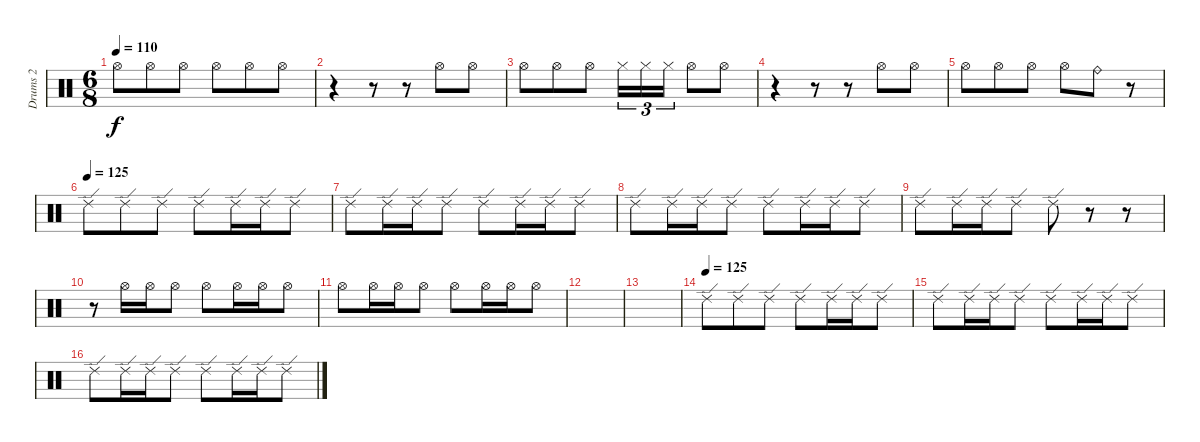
\track ("Drums 2" "Drums 2") {instrument percussion}
\staff {score}
\articulation defaults
\ts (6 8)
\tempo 110
\clef neutral
\ks c "Hi-Hat (open)".8{dy f} "Hi-Hat (open)".8 "Hi-Hat (open)".8 "Hi-Hat (open)".8 "Hi-Hat (open)".8 "Hi-Hat (open)".8
|
r.4 r.8 r.8 "Hi-Hat (open)".8 "Hi-Hat (open)".8 |
"Hi-Hat (open)".8 "Hi-Hat (open)".8 "Hi-Hat (open)".8 "Hi-Hat (closed)".16{tu (3 2)} "Hi-Hat (closed)".16{tu (3 2)} "Hi-Hat (closed)".16{tu (3 2)} "Hi-Hat (open)".8 "Hi-Hat (open)".8 |
r.4 r.8 r.8 "Hi-Hat (open)".8 "Hi-Hat (open)".8 |
"Hi-Hat (open)".8 "Hi-Hat (open)".8 "Hi-Hat (open)".8 "Hi-Hat (open)".8 "Ride (bell)".8 r.8 |
\tempo (125)
"Ride (edge) 2".8 "Ride (edge) 2".8 "Ride (edge) 2".8 "Ride (edge) 2".8 "Ride (edge) 2".16 "Ride (edge) 2".16 "Ride (edge) 2".8 |
"Ride (edge) 2".8 "Ride (edge) 2".16 "Ride (edge) 2".16 "Ride (edge) 2".8 "Ride (edge) 2".8 "Ride (edge) 2".16 "Ride (edge) 2".16 "Ride (edge) 2".8 |
"Ride (edge) 2".8 "Ride (edge) 2".16 "Ride (edge) 2".16 "Ride (edge) 2".8 "Ride (edge) 2".8 "Ride (edge) 2".16 "Ride (edge) 2".16 "Ride (edge) 2".8 |
"Ride (edge) 2".8 "Ride (edge) 2".16 "Ride (edge) 2".16 "Ride (edge) 2".8 "Ride (edge) 2".8 r.8 r.8 |
r.8 "Hi-Hat (open)".16 "Hi-Hat (open)".16 "Hi-Hat (open)".8 "Hi-Hat (open)".8 "Hi-Hat (open)".16 "Hi-Hat (open)".16 "Hi-Hat (open)".8 |
"Hi-Hat (open)".8 "Hi-Hat (open)".16 "Hi-Hat (open)".16 "Hi-Hat (open)".8 "Hi-Hat (open)".8 "Hi-Hat (open)".16 "Hi-Hat (open)".16 "Hi-Hat (open)".8 |
|
|
\tempo (125)
"Ride (edge) 2".8 "Ride (edge) 2".8 "Ride (edge) 2".8 "Ride (edge) 2".8 "Ride (edge) 2".16 "Ride (edge) 2".16 "Ride (edge) 2".8 |
"Ride (edge) 2".8 "Ride (edge) 2".16 "Ride (edge) 2".16 "Ride (edge) 2".8 "Ride (edge) 2".8 "Ride (edge) 2".16 "Ride (edge) 2".16 "Ride (edge) 2".8 |
"Ride (edge) 2".8 "Ride (edge) 2".16 "Ride (edge) 2".16 "Ride (edge) 2".8 "Ride (edge) 2".8 "Ride (edge) 2".16 "Ride (edge) 2".16 "Ride (edge) 2".8
